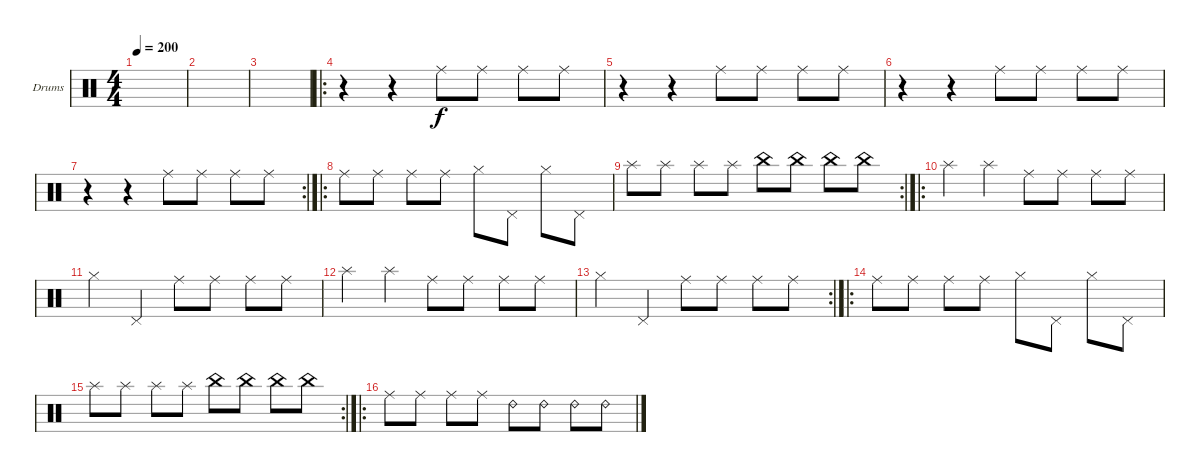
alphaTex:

\defaultSystemsLayout 4
\bracketExtendMode groupsimilarinstruments
\firstSystemTrackNameOrientation horizontal
\otherSystemsTrackNameOrientation horizontal
\track ("Midget Caverly" "Drums") {instrument percussion}
\staff {score}
\articulation defaults
\ts (4 4)
\tempo 200
\clef neutral
\ks c
|
|
|
\ro
r.4 r.4 "Ride (middle)".8 "Ride (middle)".8 "Ride (middle)".8 "Ride (middle)".8 |
r.4 r.4 "Ride (middle)".8 "Ride (middle)".8 "Ride (middle)".8 "Ride (middle)".8 |
r.4 r.4 "Ride (middle)".8 "Ride (middle)".8 "Ride (middle)".8 "Ride (middle)".8 |
\rc 2
r.4 r.4 "Ride (middle)".8 "Ride (middle)".8 "Ride (middle)".8 "Ride (middle)".8 |
\ro "Ride (middle)".8 "Ride (middle)".8 "Ride (middle)".8 "Ride (middle)".8 "Hi-Hat (closed)".8 "Pedal Hi-Hat (hit)".8 "Hi-Hat (closed)".8 "Pedal Hi-Hat (hit)".8
|
\rc 2 "Splash (hit)".8 "Splash (hit)".8 "Splash (hit)".8 "Splash (hit)".8 "China (hit)".8 "China (hit)".8 "China (hit)".8 "China (hit)".8
|
\ro "Splash (hit)".4 "Splash (hit)".4 "Ride (middle)".8 "Ride (middle)".8 "Ride (middle)".8 "Ride (middle)".8
|
"Hi-Hat (closed)".4 "Pedal Hi-Hat (hit)".4 "Ride (middle)".8 "Ride (middle)".8 "Ride (middle)".8 "Ride (middle)".8 |
"Splash (hit)".4 "Splash (hit)".4 "Ride (middle)".8 "Ride (middle)".8 "Ride (middle)".8 "Ride (middle)".8 |
\rc 2 "Hi-Hat (closed)".4 "Pedal Hi-Hat (hit)".4 "Ride (middle)".8 "Ride (middle)".8 "Ride (middle)".8 "Ride (middle)".8
|
\ro "Ride (middle)".8 "Ride (middle)".8 "Ride (middle)".8 "Ride (middle)".8 "Hi-Hat (closed)".8 "Pedal Hi-Hat (hit)".8 "Hi-Hat (closed)".8 "Pedal Hi-Hat (hit)".8
|
\rc 2 "Splash (hit)".8 "Splash (hit)".8 "Splash (hit)".8 "Splash (hit)".8 "China (hit)".8 "China (hit)".8 "China (hit)".8 "China (hit)".8
|
\ro "Ride (middle)".8 "Ride (middle)".8 "Ride (middle)".8 "Ride (middle)".8 "Ride (bell) 2".8 "Ride (bell) 2".8 "Ride (bell) 2".8 "Ride (bell) 2".8
